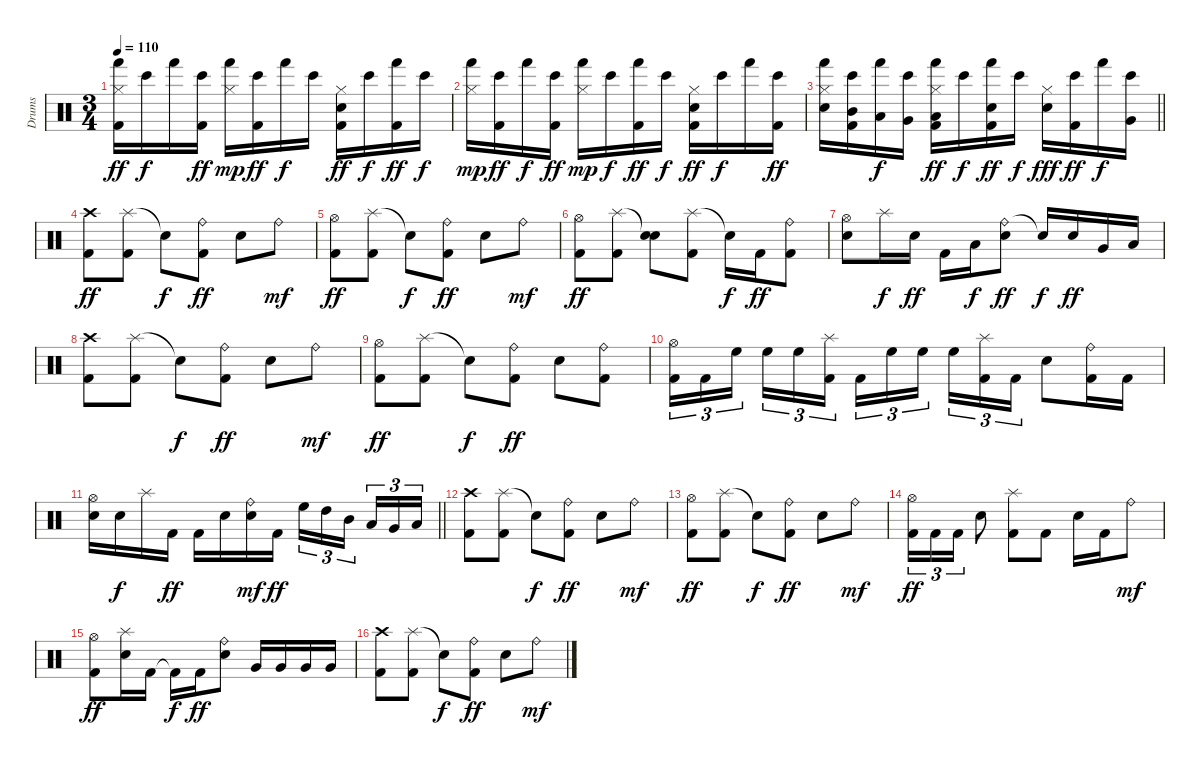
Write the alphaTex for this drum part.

\track ("Drums" "Drums") {instrument percussion}
\staff {score}
\articulation defaults
\ts (3 4)
\tempo 110
\clef neutral
\ks c
("Hi-Hat (closed)" "Hand (hit)" "Kick (hit) 2").16{dy ff} "Bongo High (hit)".16{dy f} "Hand (hit)".16 ("Bongo High (hit)" "Kick (hit) 2").16{dy ff} ("Hi-Hat (closed)" "Hand (hit)").16{dy mp} ("Bongo High (hit)" "Kick (hit) 2").16{dy ff} "Hand (hit)".16{dy f} "Bongo High (hit)".16 ("Hi-Hat (closed)" "Snare (hit) 2" "Kick (hit) 2").16{dy ff} "Bongo High (hit)".16{dy f} ("Hand (hit)" "Kick (hit) 2").16{dy ff} "Bongo High (hit)".16{dy f} |
("Hi-Hat (closed)" "Hand (hit)").16{dy mp} ("Bongo High (hit)" "Kick (hit) 2").16{dy ff} "Hand (hit)".16{dy f} ("Bongo High (hit)" "Kick (hit) 2").16{dy ff} ("Hi-Hat (closed)" "Hand (hit)").16{dy mp} "Bongo High (hit)".16{dy f} ("Hand (hit)" "Kick (hit) 2").16{dy ff} "Bongo High (hit)".16{dy f} ("Hi-Hat (closed)" "Snare (hit) 2" "Kick (hit) 2").16{dy ff} "Bongo High (hit)".16{dy f} "Hand (hit)".16 ("Bongo High (hit)" "Kick (hit) 2").16{dy ff} |
\barLineRight lightlight
("Hi-Hat (closed)" "Hand (hit)" "Snare (hit) 2").16 ("Bongo High (hit)" "Mid Tom (hit)" "Kick (hit) 2").16 ("Hand (hit)" "Low Tom (hit)").16{dy f} ("Bongo High (hit)" "Very Low Tom (hit)").16 ("Hi-Hat (closed)" "Hand (hit)" "Low Floor Tom (hit)" "Kick (hit) 2").16{dy ff} "Bongo High (hit)".16{dy f} ("Hand (hit)" "Snare (hit) 2" "Kick (hit) 2").16{dy ff} "Bongo High (hit)".16{dy f} ("Hi-Hat (closed)" "Snare (hit) 2").16{dy fff} ("Bongo High (hit)" "Kick (hit) 2").16{dy ff} "Hand (hit)".16{dy f} ("Bongo High (hit)" "Very Low Tom (hit)").16 |
\section ("" "")
("Crash high (hit)" "Kick (hit) 2").8{dy ff} ("Splash (hit)" "Kick (hit) 2").8 "Snare (hit)"{t}.8{dy f} ("Ride (bell)" "Kick (hit) 2").8{dy ff} "Snare (hit) 2".8 "Ride (bell)".8{dy mf} |
("Hi-Hat (open)" "Kick (hit) 2").8{dy ff} ("Splash (hit)" "Kick (hit) 2").8 "Snare (hit)"{t}.8{dy f} ("Ride (bell)" "Kick (hit) 2").8{dy ff} "Snare (hit) 2".8 "Ride (bell)".8{dy mf} |
("Hi-Hat (open)" "Kick (hit) 2").8{dy ff} ("Splash (hit)" "Kick (hit) 2").8 ("Snare (hit)"{t} "Snare (hit) 2").8 ("Splash (hit)" "Kick (hit) 2").8 "Snare (hit)"{t}.16{dy f} "Kick (hit) 2".16{dy ff} ("Ride (bell)" "Kick (hit) 2").8 |
("Hi-Hat (open)" "Snare (hit) 2").8 "Splash (hit)".16{dy f} "Snare (hit) 2".16{dy ff} "Kick (hit) 2".16 "Low Tom (hit)".16{dy f} ("Ride (bell)" "Snare (hit) 2").8{dy ff} "Snare (hit)"{t}.16{dy f} "Snare (hit) 2".16{dy ff} "Very Low Tom (hit)".16 "Low Floor Tom (hit)".16 |
("Crash high (hit)" "Kick (hit) 2").8 ("Splash (hit)" "Kick (hit) 2").8 "Snare (hit)"{t}.8{dy f} ("Ride (bell)" "Kick (hit) 2").8{dy ff} "Snare (hit) 2".8 "Ride (bell)".8{dy mf} |
("Hi-Hat (open)" "Kick (hit) 2").8{dy ff} ("Splash (hit)" "Kick (hit) 2").8 "Snare (hit)"{t}.8{dy f} ("Ride (bell)" "Kick (hit) 2").8{dy ff} "Snare (hit) 2".8 ("Ride (bell)" "Kick (hit) 2").8 |
("Hi-Hat (open)" "Kick (hit) 2").16{tu (3 2)} "Kick (hit) 2".16{tu (3 2)} "High Floor Tom (hit)".16{tu (3 2) beam splitsecondary} "High Floor Tom (hit)".16{tu (3 2)} "High Floor Tom (hit)".16{tu (3 2)} ("Splash (hit)" "Kick (hit) 2").16{tu (3 2)} "Kick (hit) 2".16{tu (3 2)} "High Floor Tom (hit)".16{tu (3 2)} "High Floor Tom (hit)".16{tu (3 2) beam splitsecondary} "High Floor Tom (hit)".16{tu (3 2)} ("Splash (hit)" "Kick (hit) 2").16{tu (3 2)} "Kick (hit) 2".16{tu (3 2)} "Snare (hit) 2".8 ("Ride (bell)" "Kick (hit) 2").16 "Kick (hit) 2".16 |
\barLineRight lightlight
("Hi-Hat (open)" "Snare (hit) 2").16 "Snare (hit) 2".16{dy f} "Splash (hit)".16 "Kick (hit) 2".16{dy ff} "Kick (hit) 2".16 "Snare (hit) 2".16 ("Ride (bell)" "Snare (hit) 2").16{dy mf} "Kick (hit) 2".16{dy ff} "High Floor Tom (hit)".16{tu (3 2)} "High Tom (hit)".16{tu (3 2)} "Mid Tom (hit)".16{tu (3 2) beam splitsecondary} "Low Tom (hit)".16{tu (3 2)} "Very Low Tom (hit)".16{tu (3 2)} "Low Floor Tom (hit)".16{tu (3 2)} |
\section ("" "")
("Crash high (hit)" "Kick (hit) 2").8 ("Splash (hit)" "Kick (hit) 2").8 "Snare (hit)"{t}.8{dy f} ("Ride (bell)" "Kick (hit) 2").8{dy ff} "Snare (hit) 2".8 "Ride (bell)".8{dy mf} |
("Hi-Hat (open)" "Kick (hit) 2").8{dy ff} ("Splash (hit)" "Kick (hit) 2").8 "Snare (hit)"{t}.8{dy f} ("Ride (bell)" "Kick (hit) 2").8{dy ff} "Snare (hit) 2".8 "Ride (bell)".8{dy mf} |
("Hi-Hat (open)" "Kick (hit) 2").16{tu (3 2) dy ff} "Kick (hit) 2".16{tu (3 2)} "Kick (hit) 2".16{tu (3 2)} "Snare (hit) 2".8 ("Splash (hit)" "Kick (hit) 2").8 "Kick (hit) 2".8 "Snare (hit) 2".16 "Kick (hit) 2".16 "Ride (bell)".8{dy mf} |
("Hi-Hat (open)" "Kick (hit) 2").8{dy ff} ("Splash (hit)" "Snare (hit) 2").16 "Kick (hit) 2".16 "Kick (hit) 2"{t}.16{dy f} "Kick (hit) 2".16{dy ff} ("Ride (bell)" "Snare (hit) 2").8 "Very Low Tom (hit)".16 "Very Low Tom (hit)".16 "Very Low Tom (hit)".16 "Very Low Tom (hit)".16 |
("Crash high (hit)" "Kick (hit) 2").8 ("Splash (hit)" "Kick (hit) 2").8 "Snare (hit)"{t}.8{dy f} ("Ride (bell)" "Kick (hit) 2").8{dy ff} "Snare (hit) 2".8 "Ride (bell)".8{dy mf}
